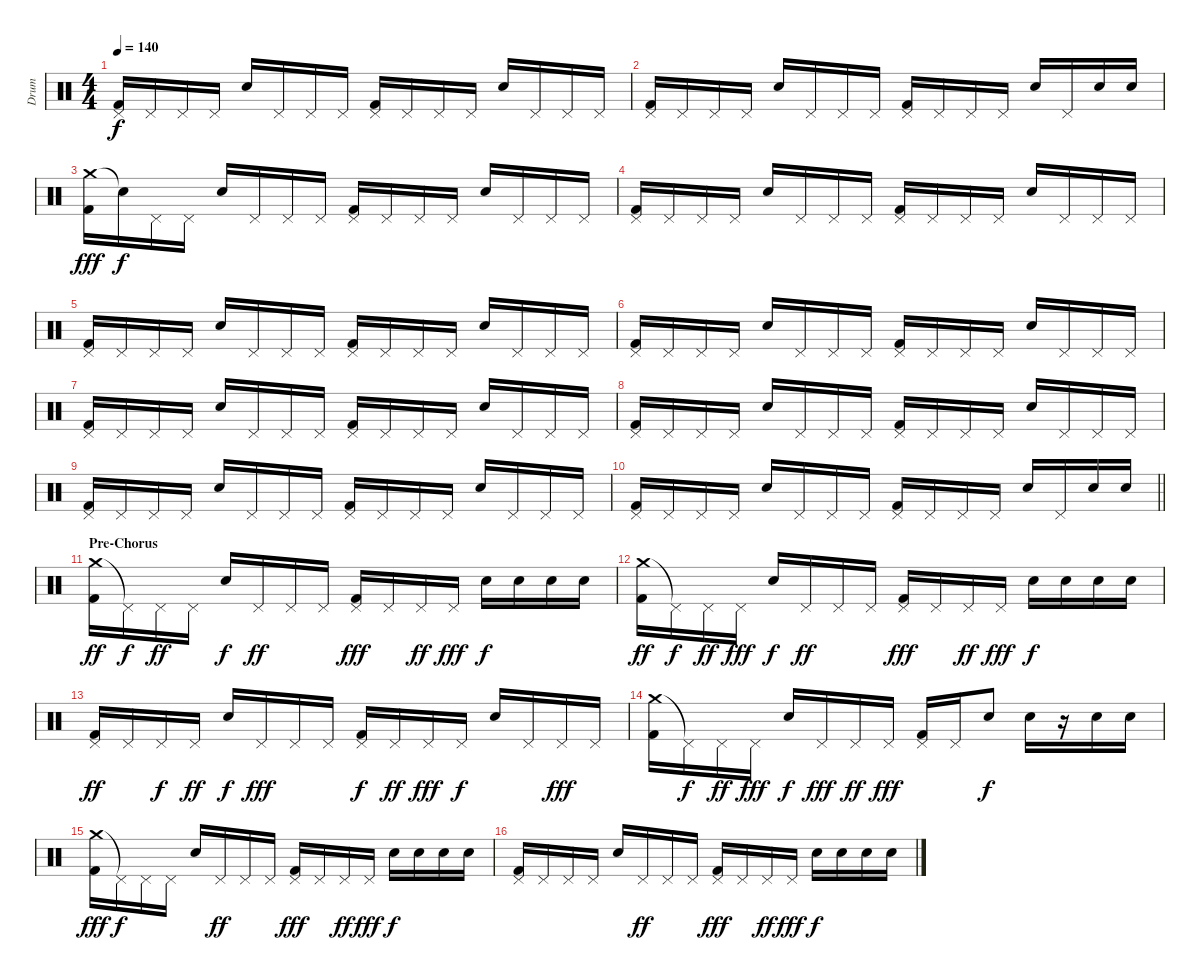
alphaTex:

\track ("Drum" "Drum") {instrument percussion}
\staff {score}
\articulation defaults
\ts (4 4)
\tempo 140
\clef neutral
\ks c
("Pedal Hi-Hat (hit)" "Kick (hit) 2").16{dy f} "Pedal Hi-Hat (hit)".16 "Pedal Hi-Hat (hit)".16 "Pedal Hi-Hat (hit)".16 "Snare (hit) 2".16 "Pedal Hi-Hat (hit)".16 "Pedal Hi-Hat (hit)".16 "Pedal Hi-Hat (hit)".16 ("Pedal Hi-Hat (hit)" "Kick (hit) 2").16 "Pedal Hi-Hat (hit)".16 "Pedal Hi-Hat (hit)".16 "Pedal Hi-Hat (hit)".16 "Snare (hit) 2".16 "Pedal Hi-Hat (hit)".16 "Pedal Hi-Hat (hit)".16 "Pedal Hi-Hat (hit)".16 |
("Pedal Hi-Hat (hit)" "Kick (hit) 2").16 "Pedal Hi-Hat (hit)".16 "Pedal Hi-Hat (hit)".16 "Pedal Hi-Hat (hit)".16 "Snare (hit) 2".16 "Pedal Hi-Hat (hit)".16 "Pedal Hi-Hat (hit)".16 "Pedal Hi-Hat (hit)".16 ("Pedal Hi-Hat (hit)" "Kick (hit) 2").16 "Pedal Hi-Hat (hit)".16 "Pedal Hi-Hat (hit)".16 "Pedal Hi-Hat (hit)".16 "Snare (hit) 2".16 "Pedal Hi-Hat (hit)".16 "Snare (hit) 2".16 "Snare (hit) 2".16 |
("Crash medium (hit)" "Kick (hit) 2").16{dy fff} "Snare (hit)"{t}.16{dy f} "Pedal Hi-Hat (hit)".16 "Pedal Hi-Hat (hit)".16 "Snare (hit) 2".16 "Pedal Hi-Hat (hit)".16 "Pedal Hi-Hat (hit)".16 "Pedal Hi-Hat (hit)".16 ("Pedal Hi-Hat (hit)" "Kick (hit) 2").16 "Pedal Hi-Hat (hit)".16 "Pedal Hi-Hat (hit)".16 "Pedal Hi-Hat (hit)".16 "Snare (hit) 2".16 "Pedal Hi-Hat (hit)".16 "Pedal Hi-Hat (hit)".16 "Pedal Hi-Hat (hit)".16 |
("Pedal Hi-Hat (hit)" "Kick (hit) 2").16 "Pedal Hi-Hat (hit)".16 "Pedal Hi-Hat (hit)".16 "Pedal Hi-Hat (hit)".16 "Snare (hit) 2".16 "Pedal Hi-Hat (hit)".16 "Pedal Hi-Hat (hit)".16 "Pedal Hi-Hat (hit)".16 ("Pedal Hi-Hat (hit)" "Kick (hit) 2").16 "Pedal Hi-Hat (hit)".16 "Pedal Hi-Hat (hit)".16 "Pedal Hi-Hat (hit)".16 "Snare (hit) 2".16 "Pedal Hi-Hat (hit)".16 "Pedal Hi-Hat (hit)".16 "Pedal Hi-Hat (hit)".16 |
("Pedal Hi-Hat (hit)" "Kick (hit) 2").16 "Pedal Hi-Hat (hit)".16 "Pedal Hi-Hat (hit)".16 "Pedal Hi-Hat (hit)".16 "Snare (hit) 2".16 "Pedal Hi-Hat (hit)".16 "Pedal Hi-Hat (hit)".16 "Pedal Hi-Hat (hit)".16 ("Pedal Hi-Hat (hit)" "Kick (hit) 2").16 "Pedal Hi-Hat (hit)".16 "Pedal Hi-Hat (hit)".16 "Pedal Hi-Hat (hit)".16 "Snare (hit) 2".16 "Pedal Hi-Hat (hit)".16 "Pedal Hi-Hat (hit)".16 "Pedal Hi-Hat (hit)".16 |
("Pedal Hi-Hat (hit)" "Kick (hit) 2").16 "Pedal Hi-Hat (hit)".16 "Pedal Hi-Hat (hit)".16 "Pedal Hi-Hat (hit)".16 "Snare (hit) 2".16 "Pedal Hi-Hat (hit)".16 "Pedal Hi-Hat (hit)".16 "Pedal Hi-Hat (hit)".16 ("Pedal Hi-Hat (hit)" "Kick (hit) 2").16 "Pedal Hi-Hat (hit)".16 "Pedal Hi-Hat (hit)".16 "Pedal Hi-Hat (hit)".16 "Snare (hit) 2".16 "Pedal Hi-Hat (hit)".16 "Pedal Hi-Hat (hit)".16 "Pedal Hi-Hat (hit)".16 |
("Pedal Hi-Hat (hit)" "Kick (hit) 2").16 "Pedal Hi-Hat (hit)".16 "Pedal Hi-Hat (hit)".16 "Pedal Hi-Hat (hit)".16 "Snare (hit) 2".16 "Pedal Hi-Hat (hit)".16 "Pedal Hi-Hat (hit)".16 "Pedal Hi-Hat (hit)".16 ("Pedal Hi-Hat (hit)" "Kick (hit) 2").16 "Pedal Hi-Hat (hit)".16 "Pedal Hi-Hat (hit)".16 "Pedal Hi-Hat (hit)".16 "Snare (hit) 2".16 "Pedal Hi-Hat (hit)".16 "Pedal Hi-Hat (hit)".16 "Pedal Hi-Hat (hit)".16 |
("Pedal Hi-Hat (hit)" "Kick (hit) 2").16 "Pedal Hi-Hat (hit)".16 "Pedal Hi-Hat (hit)".16 "Pedal Hi-Hat (hit)".16 "Snare (hit) 2".16 "Pedal Hi-Hat (hit)".16 "Pedal Hi-Hat (hit)".16 "Pedal Hi-Hat (hit)".16 ("Pedal Hi-Hat (hit)" "Kick (hit) 2").16 "Pedal Hi-Hat (hit)".16 "Pedal Hi-Hat (hit)".16 "Pedal Hi-Hat (hit)".16 "Snare (hit) 2".16 "Pedal Hi-Hat (hit)".16 "Pedal Hi-Hat (hit)".16 "Pedal Hi-Hat (hit)".16 |
("Pedal Hi-Hat (hit)" "Kick (hit) 2").16 "Pedal Hi-Hat (hit)".16 "Pedal Hi-Hat (hit)".16 "Pedal Hi-Hat (hit)".16 "Snare (hit) 2".16 "Pedal Hi-Hat (hit)".16 "Pedal Hi-Hat (hit)".16 "Pedal Hi-Hat (hit)".16 ("Pedal Hi-Hat (hit)" "Kick (hit) 2").16 "Pedal Hi-Hat (hit)".16 "Pedal Hi-Hat (hit)".16 "Pedal Hi-Hat (hit)".16 "Snare (hit) 2".16 "Pedal Hi-Hat (hit)".16 "Pedal Hi-Hat (hit)".16 "Pedal Hi-Hat (hit)".16 |
\barLineRight lightlight
("Pedal Hi-Hat (hit)" "Kick (hit) 2").16 "Pedal Hi-Hat (hit)".16 "Pedal Hi-Hat (hit)".16 "Pedal Hi-Hat (hit)".16 "Snare (hit) 2".16 "Pedal Hi-Hat (hit)".16 "Pedal Hi-Hat (hit)".16 "Pedal Hi-Hat (hit)".16 ("Pedal Hi-Hat (hit)" "Kick (hit) 2").16 "Pedal Hi-Hat (hit)".16 "Pedal Hi-Hat (hit)".16 "Pedal Hi-Hat (hit)".16 "Snare (hit) 2".16 "Pedal Hi-Hat (hit)".16 "Snare (hit) 2".16 "Snare (hit) 2".16 |
\section ("" "Pre-Chorus")
("Crash medium (hit)" "Kick (hit) 2").16{dy ff} "Pedal Hi-Hat (hit)"{t}.16{dy f} "Pedal Hi-Hat (hit)".16{dy ff} "Pedal Hi-Hat (hit)".16 "Snare (hit) 2".16{dy f} "Pedal Hi-Hat (hit)".16{dy ff} "Pedal Hi-Hat (hit)".16 "Pedal Hi-Hat (hit)".16 ("Pedal Hi-Hat (hit)" "Kick (hit) 2").16{dy fff} "Pedal Hi-Hat (hit)".16 "Pedal Hi-Hat (hit)".16{dy ff} "Pedal Hi-Hat (hit)".16{dy fff} "Snare (hit) 2".16{dy f} "Snare (hit) 2".16 "Snare (hit) 2".16 "Snare (hit) 2".16 |
("Crash medium (hit)" "Kick (hit) 2").16{dy ff} "Pedal Hi-Hat (hit)"{t}.16{dy f} "Pedal Hi-Hat (hit)".16{dy ff} "Pedal Hi-Hat (hit)".16{dy fff} "Snare (hit) 2".16{dy f} "Pedal Hi-Hat (hit)".16{dy ff} "Pedal Hi-Hat (hit)".16 "Pedal Hi-Hat (hit)".16 ("Pedal Hi-Hat (hit)" "Kick (hit) 2").16{dy fff} "Pedal Hi-Hat (hit)".16 "Pedal Hi-Hat (hit)".16{dy ff} "Pedal Hi-Hat (hit)".16{dy fff} "Snare (hit) 2".16{dy f} "Snare (hit) 2".16 "Snare (hit) 2".16 "Snare (hit) 2".16 |
("Pedal Hi-Hat (hit)" "Kick (hit) 2").16{dy ff} "Pedal Hi-Hat (hit)".16 "Pedal Hi-Hat (hit)".16{dy f} "Pedal Hi-Hat (hit)".16{dy ff} "Snare (hit) 2".16{dy f} "Pedal Hi-Hat (hit)".16{dy fff} "Pedal Hi-Hat (hit)".16 "Pedal Hi-Hat (hit)".16 ("Pedal Hi-Hat (hit)" "Kick (hit) 2").16{dy f} "Pedal Hi-Hat (hit)".16{dy ff} "Pedal Hi-Hat (hit)".16{dy fff} "Pedal Hi-Hat (hit)".16{dy f} "Snare (hit) 2".16 "Pedal Hi-Hat (hit)".16 "Pedal Hi-Hat (hit)".16{dy fff} "Pedal Hi-Hat (hit)".16 |
("Crash medium (hit)" "Kick (hit) 2").16 "Pedal Hi-Hat (hit)"{t}.16{dy f} "Pedal Hi-Hat (hit)".16{dy ff} "Pedal Hi-Hat (hit)".16{dy fff} "Snare (hit) 2".16{dy f} "Pedal Hi-Hat (hit)".16{dy fff} "Pedal Hi-Hat (hit)".16{dy ff} "Pedal Hi-Hat (hit)".16{dy fff} ("Pedal Hi-Hat (hit)" "Kick (hit) 2").16 "Pedal Hi-Hat (hit)".16 "Snare (hit) 2".8{dy f} "Snare (hit) 2".16 r.16 "Snare (hit) 2".16 "Snare (hit) 2".16 |
("Crash medium (hit)" "Kick (hit) 2").16{dy fff} "Pedal Hi-Hat (hit)"{t}.16{dy f} "Pedal Hi-Hat (hit)".16 "Pedal Hi-Hat (hit)".16 "Snare (hit) 2".16 "Pedal Hi-Hat (hit)".16{dy ff} "Pedal Hi-Hat (hit)".16 "Pedal Hi-Hat (hit)".16 ("Pedal Hi-Hat (hit)" "Kick (hit) 2").16{dy fff} "Pedal Hi-Hat (hit)".16 "Pedal Hi-Hat (hit)".16{dy ff} "Pedal Hi-Hat (hit)".16{dy fff} "Snare (hit) 2".16{dy f} "Snare (hit) 2".16 "Snare (hit) 2".16 "Snare (hit) 2".16 |
("Pedal Hi-Hat (hit)" "Kick (hit) 2").16 "Pedal Hi-Hat (hit)".16 "Pedal Hi-Hat (hit)".16 "Pedal Hi-Hat (hit)".16 "Snare (hit) 2".16 "Pedal Hi-Hat (hit)".16{dy ff} "Pedal Hi-Hat (hit)".16 "Pedal Hi-Hat (hit)".16 ("Pedal Hi-Hat (hit)" "Kick (hit) 2").16{dy fff} "Pedal Hi-Hat (hit)".16 "Pedal Hi-Hat (hit)".16{dy ff} "Pedal Hi-Hat (hit)".16{dy fff} "Snare (hit) 2".16{dy f} "Snare (hit) 2".16 "Snare (hit) 2".16 "Snare (hit) 2".16
